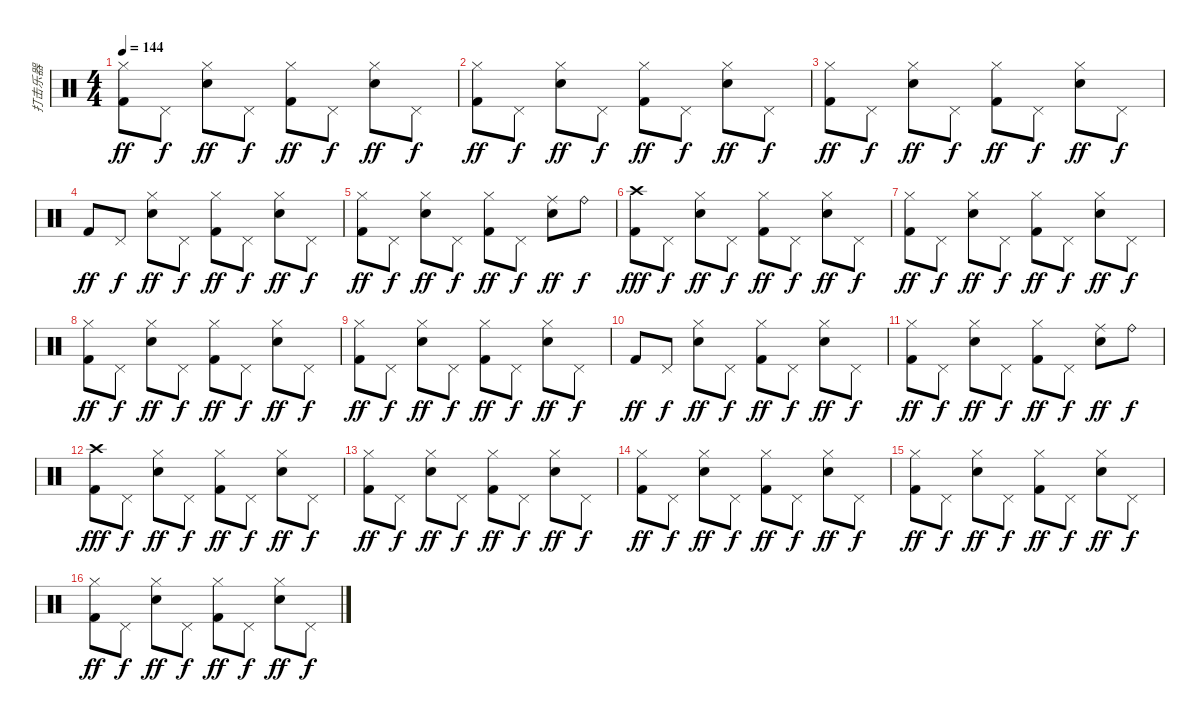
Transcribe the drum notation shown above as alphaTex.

\track ("打击乐器" "打击乐器") {instrument percussion}
\staff {score}
\articulation defaults
\ts (4 4)
\tempo 144
\clef neutral
\ks c
("Kick (hit) 2" "Hi-Hat (closed)").8{dy ff} "Pedal Hi-Hat (hit)".8{dy f} ("Snare (hit) 2" "Hi-Hat (closed)").8{dy ff} "Pedal Hi-Hat (hit)".8{dy f} ("Kick (hit) 2" "Hi-Hat (closed)").8{dy ff} "Pedal Hi-Hat (hit)".8{dy f} ("Snare (hit) 2" "Hi-Hat (closed)").8{dy ff} "Pedal Hi-Hat (hit)".8{dy f} |
("Kick (hit) 2" "Hi-Hat (closed)").8{dy ff} "Pedal Hi-Hat (hit)".8{dy f} ("Snare (hit) 2" "Hi-Hat (closed)").8{dy ff} "Pedal Hi-Hat (hit)".8{dy f} ("Kick (hit) 2" "Hi-Hat (closed)").8{dy ff} "Pedal Hi-Hat (hit)".8{dy f} ("Snare (hit) 2" "Hi-Hat (closed)").8{dy ff} "Pedal Hi-Hat (hit)".8{dy f} |
("Kick (hit) 2" "Hi-Hat (closed)").8{dy ff} "Pedal Hi-Hat (hit)".8{dy f} ("Snare (hit) 2" "Hi-Hat (closed)").8{dy ff} "Pedal Hi-Hat (hit)".8{dy f} ("Kick (hit) 2" "Hi-Hat (closed)").8{dy ff} "Pedal Hi-Hat (hit)".8{dy f} ("Snare (hit) 2" "Hi-Hat (closed)").8{dy ff} "Pedal Hi-Hat (hit)".8{dy f} |
"Kick (hit) 2".8{dy ff} "Pedal Hi-Hat (hit)".8{dy f} ("Snare (hit) 2" "Hi-Hat (closed)").8{dy ff} "Pedal Hi-Hat (hit)".8{dy f} ("Kick (hit) 2" "Hi-Hat (closed)").8{dy ff} "Pedal Hi-Hat (hit)".8{dy f} ("Snare (hit) 2" "Hi-Hat (closed)").8{dy ff} "Pedal Hi-Hat (hit)".8{dy f} |
("Kick (hit) 2" "Hi-Hat (closed)").8{dy ff} "Pedal Hi-Hat (hit)".8{dy f} ("Snare (hit) 2" "Hi-Hat (closed)").8{dy ff} "Pedal Hi-Hat (hit)".8{dy f} ("Kick (hit) 2" "Hi-Hat (closed)").8{dy ff} "Pedal Hi-Hat (hit)".8{dy f} ("Snare (hit) 2" "Ride (middle)").8{dy ff} "Ride (bell)".8{dy f} |
("Kick (hit) 2" "Crash high (hit)").8{dy fff} "Pedal Hi-Hat (hit)".8{dy f} ("Snare (hit) 2" "Hi-Hat (closed)").8{dy ff} "Pedal Hi-Hat (hit)".8{dy f} ("Kick (hit) 2" "Hi-Hat (closed)").8{dy ff} "Pedal Hi-Hat (hit)".8{dy f} ("Snare (hit) 2" "Hi-Hat (closed)").8{dy ff} "Pedal Hi-Hat (hit)".8{dy f} |
("Kick (hit) 2" "Hi-Hat (closed)").8{dy ff} "Pedal Hi-Hat (hit)".8{dy f} ("Snare (hit) 2" "Hi-Hat (closed)").8{dy ff} "Pedal Hi-Hat (hit)".8{dy f} ("Kick (hit) 2" "Hi-Hat (closed)").8{dy ff} "Pedal Hi-Hat (hit)".8{dy f} ("Snare (hit) 2" "Hi-Hat (closed)").8{dy ff} "Pedal Hi-Hat (hit)".8{dy f} |
("Kick (hit) 2" "Hi-Hat (closed)").8{dy ff} "Pedal Hi-Hat (hit)".8{dy f} ("Snare (hit) 2" "Hi-Hat (closed)").8{dy ff} "Pedal Hi-Hat (hit)".8{dy f} ("Kick (hit) 2" "Hi-Hat (closed)").8{dy ff} "Pedal Hi-Hat (hit)".8{dy f} ("Snare (hit) 2" "Hi-Hat (closed)").8{dy ff} "Pedal Hi-Hat (hit)".8{dy f} |
("Kick (hit) 2" "Hi-Hat (closed)").8{dy ff} "Pedal Hi-Hat (hit)".8{dy f} ("Snare (hit) 2" "Hi-Hat (closed)").8{dy ff} "Pedal Hi-Hat (hit)".8{dy f} ("Kick (hit) 2" "Hi-Hat (closed)").8{dy ff} "Pedal Hi-Hat (hit)".8{dy f} ("Snare (hit) 2" "Hi-Hat (closed)").8{dy ff} "Pedal Hi-Hat (hit)".8{dy f} |
"Kick (hit) 2".8{dy ff} "Pedal Hi-Hat (hit)".8{dy f} ("Snare (hit) 2" "Hi-Hat (closed)").8{dy ff} "Pedal Hi-Hat (hit)".8{dy f} ("Kick (hit) 2" "Hi-Hat (closed)").8{dy ff} "Pedal Hi-Hat (hit)".8{dy f} ("Snare (hit) 2" "Hi-Hat (closed)").8{dy ff} "Pedal Hi-Hat (hit)".8{dy f} |
("Kick (hit) 2" "Hi-Hat (closed)").8{dy ff} "Pedal Hi-Hat (hit)".8{dy f} ("Snare (hit) 2" "Hi-Hat (closed)").8{dy ff} "Pedal Hi-Hat (hit)".8{dy f} ("Kick (hit) 2" "Hi-Hat (closed)").8{dy ff} "Pedal Hi-Hat (hit)".8{dy f} ("Snare (hit) 2" "Ride (middle)").8{dy ff} "Ride (bell)".8{dy f} |
("Kick (hit) 2" "Crash high (hit)").8{dy fff} "Pedal Hi-Hat (hit)".8{dy f} ("Snare (hit) 2" "Hi-Hat (closed)").8{dy ff} "Pedal Hi-Hat (hit)".8{dy f} ("Kick (hit) 2" "Hi-Hat (closed)").8{dy ff} "Pedal Hi-Hat (hit)".8{dy f} ("Snare (hit) 2" "Hi-Hat (closed)").8{dy ff} "Pedal Hi-Hat (hit)".8{dy f} |
("Kick (hit) 2" "Hi-Hat (closed)").8{dy ff} "Pedal Hi-Hat (hit)".8{dy f} ("Snare (hit) 2" "Hi-Hat (closed)").8{dy ff} "Pedal Hi-Hat (hit)".8{dy f} ("Kick (hit) 2" "Hi-Hat (closed)").8{dy ff} "Pedal Hi-Hat (hit)".8{dy f} ("Snare (hit) 2" "Hi-Hat (closed)").8{dy ff} "Pedal Hi-Hat (hit)".8{dy f} |
("Kick (hit) 2" "Hi-Hat (closed)").8{dy ff} "Pedal Hi-Hat (hit)".8{dy f} ("Snare (hit) 2" "Hi-Hat (closed)").8{dy ff} "Pedal Hi-Hat (hit)".8{dy f} ("Kick (hit) 2" "Hi-Hat (closed)").8{dy ff} "Pedal Hi-Hat (hit)".8{dy f} ("Snare (hit) 2" "Hi-Hat (closed)").8{dy ff} "Pedal Hi-Hat (hit)".8{dy f} |
("Kick (hit) 2" "Hi-Hat (closed)").8{dy ff} "Pedal Hi-Hat (hit)".8{dy f} ("Snare (hit) 2" "Hi-Hat (closed)").8{dy ff} "Pedal Hi-Hat (hit)".8{dy f} ("Kick (hit) 2" "Hi-Hat (closed)").8{dy ff} "Pedal Hi-Hat (hit)".8{dy f} ("Snare (hit) 2" "Hi-Hat (closed)").8{dy ff} "Pedal Hi-Hat (hit)".8{dy f} |
("Kick (hit) 2" "Hi-Hat (closed)").8{dy ff} "Pedal Hi-Hat (hit)".8{dy f} ("Snare (hit) 2" "Hi-Hat (closed)").8{dy ff} "Pedal Hi-Hat (hit)".8{dy f} ("Kick (hit) 2" "Hi-Hat (closed)").8{dy ff} "Pedal Hi-Hat (hit)".8{dy f} ("Snare (hit) 2" "Hi-Hat (closed)").8{dy ff} "Pedal Hi-Hat (hit)".8{dy f}
